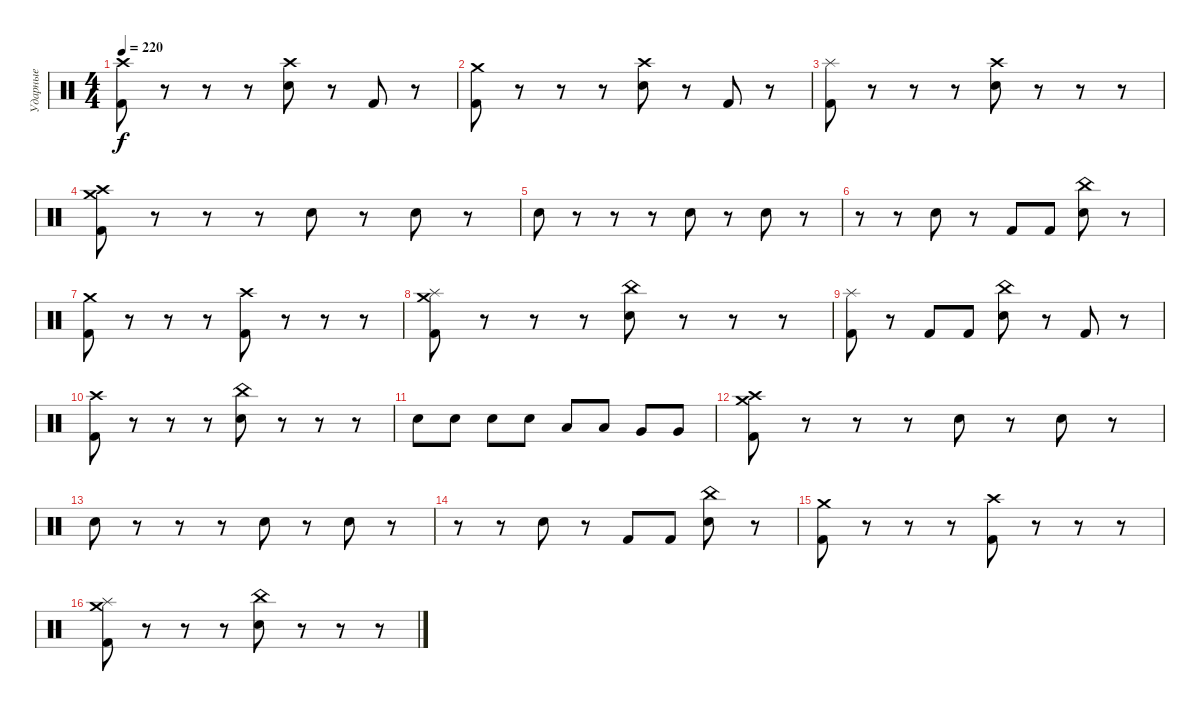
\track ("Ударные" "Ударные") {instrument percussion}
\staff {score}
\articulation defaults
\ts (4 4)
\tempo 220
\clef neutral
\ks c
("Kick (hit) 2" "Crash high (hit)").8{dy f} r.8 r.8 r.8 ("Electric Snare (hit)" "Crash high (hit)").8 r.8 "Kick (hit) 2".8 r.8 |
("Kick (hit) 2" "Crash medium (hit)").8 r.8 r.8 r.8 ("Electric Snare (hit)" "Crash high (hit)").8 r.8 "Kick (hit) 2".8 r.8 |
("Kick (hit) 2" "Splash (hit)").8 r.8 r.8 r.8 ("Electric Snare (hit)" "Crash high (hit)").8 r.8 r.8 r.8 |
("Kick (hit) 2" "Crash high (hit)" "Crash medium (hit)").8 r.8 r.8 r.8 "Electric Snare (hit)".8 r.8 "Electric Snare (hit)".8 r.8 |
"Electric Snare (hit)".8 r.8 r.8 r.8 "Electric Snare (hit)".8 r.8 "Electric Snare (hit)".8 r.8 |
r.8 r.8 "Electric Snare (hit)".8 r.8 "Kick (hit) 2".8 "Kick (hit) 2".8 ("Electric Snare (hit)" "China (hit)").8 r.8 |
("Kick (hit) 2" "Crash medium (hit)").8 r.8 r.8 r.8 ("Kick (hit) 2" "Crash high (hit)").8 r.8 r.8 r.8 |
("Kick (hit) 2" "Crash medium (hit)" "Splash (hit)").8 r.8 r.8 r.8 ("Electric Snare (hit)" "China (hit)").8 r.8 r.8 r.8 |
("Kick (hit) 2" "Splash (hit)").8 r.8 "Kick (hit) 2".8 "Kick (hit) 2".8 ("Electric Snare (hit)" "China (hit)").8 r.8 "Kick (hit) 2".8 r.8 |
("Kick (hit) 2" "Crash high (hit)").8 r.8 r.8 r.8 ("Electric Snare (hit)" "China (hit)").8 r.8 r.8 r.8 |
"Electric Snare (hit)".8 "Electric Snare (hit)".8 "Electric Snare (hit)".8 "Electric Snare (hit)".8 "Low Tom (hit)".8 "Low Tom (hit)".8 "Very Low Tom (hit)".8 "Very Low Tom (hit)".8 |
("Kick (hit) 2" "Crash high (hit)" "Crash medium (hit)").8 r.8 r.8 r.8 "Electric Snare (hit)".8 r.8 "Electric Snare (hit)".8 r.8 |
"Electric Snare (hit)".8 r.8 r.8 r.8 "Electric Snare (hit)".8 r.8 "Electric Snare (hit)".8 r.8 |
r.8 r.8 "Electric Snare (hit)".8 r.8 "Kick (hit) 2".8 "Kick (hit) 2".8 ("Electric Snare (hit)" "China (hit)").8 r.8 |
("Kick (hit) 2" "Crash medium (hit)").8 r.8 r.8 r.8 ("Kick (hit) 2" "Crash high (hit)").8 r.8 r.8 r.8 |
("Kick (hit) 2" "Crash medium (hit)" "Splash (hit)").8 r.8 r.8 r.8 ("Electric Snare (hit)" "China (hit)").8 r.8 r.8 r.8
